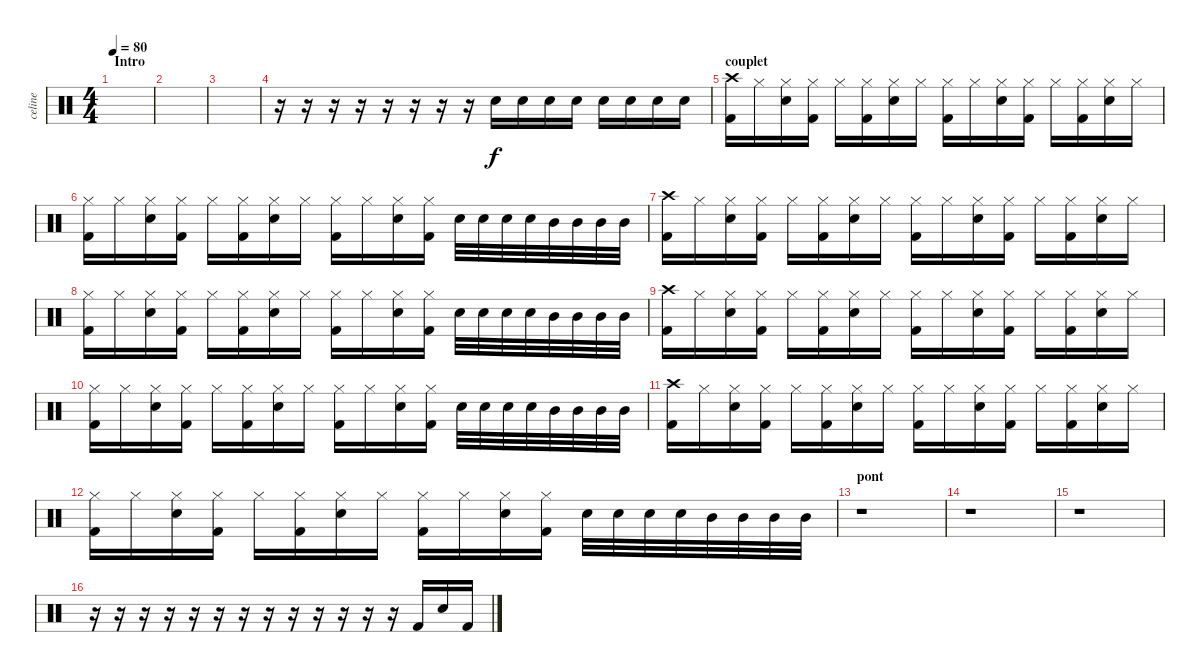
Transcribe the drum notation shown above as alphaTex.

\track ("celine" "celine") {instrument percussion}
\staff {score}
\articulation defaults
\ts (4 4)
\section ("" "Intro")
\tempo 80
\clef neutral
\ks c
|
|
|
r.16 r.16 r.16 r.16 r.16 r.16 r.16 r.16 "Electric Snare (hit)".16 "Electric Snare (hit)".16 "Electric Snare (hit)".16 "Electric Snare (hit)".16 "Electric Snare (hit)".16 "Electric Snare (hit)".16 "Electric Snare (hit)".16 "Electric Snare (hit)".16 |
\section ("" "couplet")
("Kick (hit) 2" "Crash high (hit)").16 "Hi-Hat (closed)".16 ("Hi-Hat (closed)" "Electric Snare (hit)").16 ("Hi-Hat (closed)" "Kick (hit) 2").16 "Hi-Hat (closed)".16 ("Hi-Hat (closed)" "Kick (hit) 2").16 ("Hi-Hat (closed)" "Electric Snare (hit)").16 "Hi-Hat (closed)".16 ("Hi-Hat (closed)" "Kick (hit) 2").16 "Hi-Hat (closed)".16 ("Hi-Hat (closed)" "Electric Snare (hit)").16 ("Hi-Hat (closed)" "Kick (hit) 2").16 "Hi-Hat (closed)".16 ("Hi-Hat (closed)" "Kick (hit) 2").16 ("Hi-Hat (closed)" "Electric Snare (hit)").16 "Hi-Hat (closed)".16 |
("Hi-Hat (closed)" "Kick (hit) 2").16 "Hi-Hat (closed)".16 ("Hi-Hat (closed)" "Electric Snare (hit)").16 ("Hi-Hat (closed)" "Kick (hit) 2").16 "Hi-Hat (closed)".16 ("Hi-Hat (closed)" "Kick (hit) 2").16 ("Hi-Hat (closed)" "Electric Snare (hit)").16 "Hi-Hat (closed)".16 ("Hi-Hat (closed)" "Kick (hit) 2").16 "Hi-Hat (closed)".16 ("Hi-Hat (closed)" "Electric Snare (hit)").16 ("Hi-Hat (closed)" "Kick (hit) 2").16 "Electric Snare (hit)".32 "Electric Snare (hit)".32 "Electric Snare (hit)".32 "Electric Snare (hit)".32 "Mid Tom (hit)".32 "Mid Tom (hit)".32 "Mid Tom (hit)".32 "Mid Tom (hit)".32 |
("Kick (hit) 2" "Crash high (hit)").16 "Hi-Hat (closed)".16 ("Hi-Hat (closed)" "Electric Snare (hit)").16 ("Hi-Hat (closed)" "Kick (hit) 2").16 "Hi-Hat (closed)".16 ("Hi-Hat (closed)" "Kick (hit) 2").16 ("Hi-Hat (closed)" "Electric Snare (hit)").16 "Hi-Hat (closed)".16 ("Hi-Hat (closed)" "Kick (hit) 2").16 "Hi-Hat (closed)".16 ("Hi-Hat (closed)" "Electric Snare (hit)").16 ("Hi-Hat (closed)" "Kick (hit) 2").16 "Hi-Hat (closed)".16 ("Hi-Hat (closed)" "Kick (hit) 2").16 ("Hi-Hat (closed)" "Electric Snare (hit)").16 "Hi-Hat (closed)".16 |
("Hi-Hat (closed)" "Kick (hit) 2").16 "Hi-Hat (closed)".16 ("Hi-Hat (closed)" "Electric Snare (hit)").16 ("Hi-Hat (closed)" "Kick (hit) 2").16 "Hi-Hat (closed)".16 ("Hi-Hat (closed)" "Kick (hit) 2").16 ("Hi-Hat (closed)" "Electric Snare (hit)").16 "Hi-Hat (closed)".16 ("Hi-Hat (closed)" "Kick (hit) 2").16 "Hi-Hat (closed)".16 ("Hi-Hat (closed)" "Electric Snare (hit)").16 ("Hi-Hat (closed)" "Kick (hit) 2").16 "Electric Snare (hit)".32 "Electric Snare (hit)".32 "Electric Snare (hit)".32 "Electric Snare (hit)".32 "Mid Tom (hit)".32 "Mid Tom (hit)".32 "Mid Tom (hit)".32 "Mid Tom (hit)".32 |
("Crash high (hit)" "Kick (hit) 2").16 "Hi-Hat (closed)".16 ("Hi-Hat (closed)" "Electric Snare (hit)").16 ("Hi-Hat (closed)" "Kick (hit) 2").16 "Hi-Hat (closed)".16 ("Hi-Hat (closed)" "Kick (hit) 2").16 ("Hi-Hat (closed)" "Electric Snare (hit)").16 "Hi-Hat (closed)".16 ("Hi-Hat (closed)" "Kick (hit) 2").16 "Hi-Hat (closed)".16 ("Hi-Hat (closed)" "Electric Snare (hit)").16 ("Hi-Hat (closed)" "Kick (hit) 2").16 "Hi-Hat (closed)".16 ("Hi-Hat (closed)" "Kick (hit) 2").16 ("Hi-Hat (closed)" "Electric Snare (hit)").16 "Hi-Hat (closed)".16 |
("Hi-Hat (closed)" "Kick (hit) 2").16 "Hi-Hat (closed)".16 ("Hi-Hat (closed)" "Electric Snare (hit)").16 ("Hi-Hat (closed)" "Kick (hit) 2").16 "Hi-Hat (closed)".16 ("Hi-Hat (closed)" "Kick (hit) 2").16 ("Hi-Hat (closed)" "Electric Snare (hit)").16 "Hi-Hat (closed)".16 ("Hi-Hat (closed)" "Kick (hit) 2").16 "Hi-Hat (closed)".16 ("Hi-Hat (closed)" "Electric Snare (hit)").16 ("Hi-Hat (closed)" "Kick (hit) 2").16 "Electric Snare (hit)".32 "Electric Snare (hit)".32 "Electric Snare (hit)".32 "Electric Snare (hit)".32 "Mid Tom (hit)".32 "Mid Tom (hit)".32 "Mid Tom (hit)".32 "Mid Tom (hit)".32 |
("Kick (hit) 2" "Crash high (hit)").16 "Hi-Hat (closed)".16 ("Hi-Hat (closed)" "Electric Snare (hit)").16 ("Hi-Hat (closed)" "Kick (hit) 2").16 "Hi-Hat (closed)".16 ("Hi-Hat (closed)" "Kick (hit) 2").16 ("Hi-Hat (closed)" "Electric Snare (hit)").16 "Hi-Hat (closed)".16 ("Hi-Hat (closed)" "Kick (hit) 2").16 "Hi-Hat (closed)".16 ("Hi-Hat (closed)" "Electric Snare (hit)").16 ("Hi-Hat (closed)" "Kick (hit) 2").16 "Hi-Hat (closed)".16 ("Hi-Hat (closed)" "Kick (hit) 2").16 ("Hi-Hat (closed)" "Electric Snare (hit)").16 "Hi-Hat (closed)".16 |
("Hi-Hat (closed)" "Kick (hit) 2").16 "Hi-Hat (closed)".16 ("Hi-Hat (closed)" "Electric Snare (hit)").16 ("Hi-Hat (closed)" "Kick (hit) 2").16 "Hi-Hat (closed)".16 ("Hi-Hat (closed)" "Kick (hit) 2").16 ("Hi-Hat (closed)" "Electric Snare (hit)").16 "Hi-Hat (closed)".16 ("Hi-Hat (closed)" "Kick (hit) 2").16 "Hi-Hat (closed)".16 ("Hi-Hat (closed)" "Electric Snare (hit)").16 ("Hi-Hat (closed)" "Kick (hit) 2").16 "Electric Snare (hit)".32 "Electric Snare (hit)".32 "Electric Snare (hit)".32 "Electric Snare (hit)".32 "Mid Tom (hit)".32 "Mid Tom (hit)".32 "Mid Tom (hit)".32 "Mid Tom (hit)".32 |
\section ("" "pont")
r.1 |
r.1 |
r.1 |
r.16 r.16 r.16 r.16 r.16 r.16 r.16 r.16 r.16 r.16 r.16 r.16 r.16 "Kick (hit) 2".16 "Electric Snare (hit)".16 "Kick (hit) 2".16
